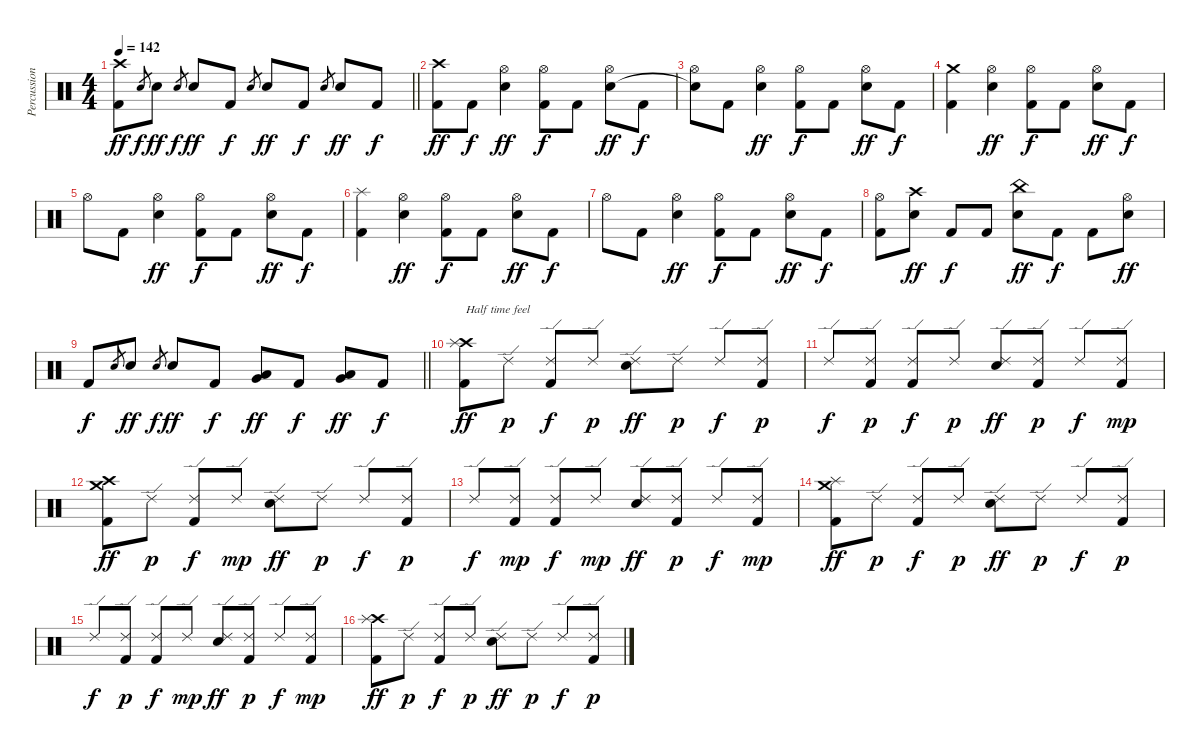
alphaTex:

\track ("Percussion" "Percussion") {instrument percussion}
\staff {score}
\articulation defaults
\ts (4 4)
\tempo 142
\clef neutral
\barLineRight lightlight
\ks c
("Crash high (hit)" "Kick (hit) 2").8{dy ff} "Snare (hit) 2".8{gr dy f} "Snare (hit) 2".8{dy ff} "Snare (hit) 2".8{gr dy f} "Snare (hit) 2".8{dy ff} "Kick (hit) 2".8{dy f} "Snare (hit) 2".8{gr} "Snare (hit) 2".8{dy ff} "Kick (hit) 2".8{dy f} "Snare (hit) 2".8{gr} "Snare (hit) 2".8{dy ff} "Kick (hit) 2".8{dy f} |
("Crash high (hit)" "Kick (hit) 2").8{dy ff} "Kick (hit) 2".8{dy f} ("Hi-Hat (open)" "Snare (hit) 2").4{dy ff} ("Hi-Hat (open)" "Kick (hit) 2").8{dy f} "Kick (hit) 2".8 ("Hi-Hat (open)" "Snare (hit) 2").8{dy ff} "Kick (hit) 2".8{dy f} |
("Hi-Hat (open)" "Snare (hit)"{t}).8 "Kick (hit) 2".8 ("Hi-Hat (open)" "Snare (hit) 2").4{dy ff} ("Hi-Hat (open)" "Kick (hit) 2").8{dy f} "Kick (hit) 2".8 ("Hi-Hat (open)" "Snare (hit) 2").8{dy ff} "Kick (hit) 2".8{dy f} |
("Crash medium (hit)" "Kick (hit) 2").4 ("Hi-Hat (open)" "Snare (hit) 2").4{dy ff} ("Hi-Hat (open)" "Kick (hit) 2").8{dy f} "Kick (hit) 2".8 ("Hi-Hat (open)" "Snare (hit) 2").8{dy ff} "Kick (hit) 2".8{dy f} |
"Hi-Hat (open)".8 "Kick (hit) 2".8 ("Hi-Hat (open)" "Snare (hit) 2").4{dy ff} ("Hi-Hat (open)" "Kick (hit) 2").8{dy f} "Kick (hit) 2".8 ("Hi-Hat (open)" "Snare (hit) 2").8{dy ff} "Kick (hit) 2".8{dy f} |
("Splash (hit)" "Kick (hit) 2").4 ("Hi-Hat (open)" "Snare (hit) 2").4{dy ff} ("Hi-Hat (open)" "Kick (hit) 2").8{dy f} "Kick (hit) 2".8 ("Hi-Hat (open)" "Snare (hit) 2").8{dy ff} "Kick (hit) 2".8{dy f} |
"Hi-Hat (open)".8 "Kick (hit) 2".8 ("Hi-Hat (open)" "Snare (hit) 2").4{dy ff} ("Hi-Hat (open)" "Kick (hit) 2").8{dy f} "Kick (hit) 2".8 ("Hi-Hat (open)" "Snare (hit) 2").8{dy ff} "Kick (hit) 2".8{dy f} |
("Hi-Hat (open)" "Kick (hit) 2").8 ("Crash high (hit)" "Snare (hit) 2").8{dy ff} "Kick (hit) 2".8{dy f} "Kick (hit) 2".8 ("China (hit)" "Snare (hit) 2").8{dy ff} "Kick (hit) 2".8{dy f} "Kick (hit) 2".8 ("Hi-Hat (open)" "Snare (hit) 2").8{dy ff} |
\barLineRight lightlight "Kick (hit) 2".8{dy f} "Snare (hit) 2".8{gr} "Snare (hit) 2".8{dy ff} "Snare (hit) 2".8{gr dy f} "Snare (hit) 2".8{dy ff} "Kick (hit) 2".8{dy f}
("Low Tom (hit)" "Very Low Tom (hit)").8{dy ff} "Kick (hit) 2".8{dy f} ("Low Floor Tom (hit)" "Very Low Tom (hit)").8{dy ff} "Kick (hit) 2".8{dy f} |
("Crash high (hit)" "Splash (hit)" "Kick (hit) 2").8{txt "Half time feel" dy ff} "Ride (edge) 2".8{dy p} ("Ride (edge) 2" "Kick (hit) 2").8{dy f} "Ride (edge) 2".8{dy p} ("Ride (edge) 2" "Snare (hit) 2").8{dy ff} "Ride (edge) 2".8{dy p} "Ride (edge) 2".8{dy f} ("Ride (edge) 2" "Kick (hit) 2").8{dy p} |
"Ride (edge) 2".8{dy f} ("Ride (edge) 2" "Kick (hit) 2").8{dy p} ("Ride (edge) 2" "Kick (hit) 2").8{dy f} "Ride (edge) 2".8{dy p} ("Ride (edge) 2" "Snare (hit) 2").8{dy ff} ("Ride (edge) 2" "Kick (hit) 2").8{dy p} "Ride (edge) 2".8{dy f} ("Ride (edge) 2" "Kick (hit) 2").8{dy mp} |
("Crash high (hit)" "Crash medium (hit)" "Kick (hit) 2").8{dy ff} "Ride (edge) 2".8{dy p} ("Ride (edge) 2" "Kick (hit) 2").8{dy f} "Ride (edge) 2".8{dy mp} ("Ride (edge) 2" "Snare (hit) 2").8{dy ff} "Ride (edge) 2".8{dy p} "Ride (edge) 2".8{dy f} ("Ride (edge) 2" "Kick (hit) 2").8{dy p} |
"Ride (edge) 2".8{dy f} ("Ride (edge) 2" "Kick (hit) 2").8{dy mp} ("Ride (edge) 2" "Kick (hit) 2").8{dy f} "Ride (edge) 2".8{dy mp} ("Ride (edge) 2" "Snare (hit) 2").8{dy ff} ("Ride (edge) 2" "Kick (hit) 2").8{dy p} "Ride (edge) 2".8{dy f} ("Ride (edge) 2" "Kick (hit) 2").8{dy mp} |
("Crash medium (hit)" "Splash (hit)" "Kick (hit) 2").8{dy ff} "Ride (edge) 2".8{dy p} ("Ride (edge) 2" "Kick (hit) 2").8{dy f} "Ride (edge) 2".8{dy p} ("Ride (edge) 2" "Snare (hit) 2").8{dy ff} "Ride (edge) 2".8{dy p} "Ride (edge) 2".8{dy f} ("Ride (edge) 2" "Kick (hit) 2").8{dy p} |
"Ride (edge) 2".8{dy f} ("Ride (edge) 2" "Kick (hit) 2").8{dy p} ("Ride (edge) 2" "Kick (hit) 2").8{dy f} "Ride (edge) 2".8{dy mp} ("Ride (edge) 2" "Snare (hit) 2").8{dy ff} ("Ride (edge) 2" "Kick (hit) 2").8{dy p} "Ride (edge) 2".8{dy f} ("Ride (edge) 2" "Kick (hit) 2").8{dy mp} |
("Crash high (hit)" "Splash (hit)" "Kick (hit) 2").8{dy ff} "Ride (edge) 2".8{dy p} ("Ride (edge) 2" "Kick (hit) 2").8{dy f} "Ride (edge) 2".8{dy p} ("Ride (edge) 2" "Snare (hit) 2").8{dy ff} "Ride (edge) 2".8{dy p} "Ride (edge) 2".8{dy f} ("Ride (edge) 2" "Kick (hit) 2").8{dy p}
